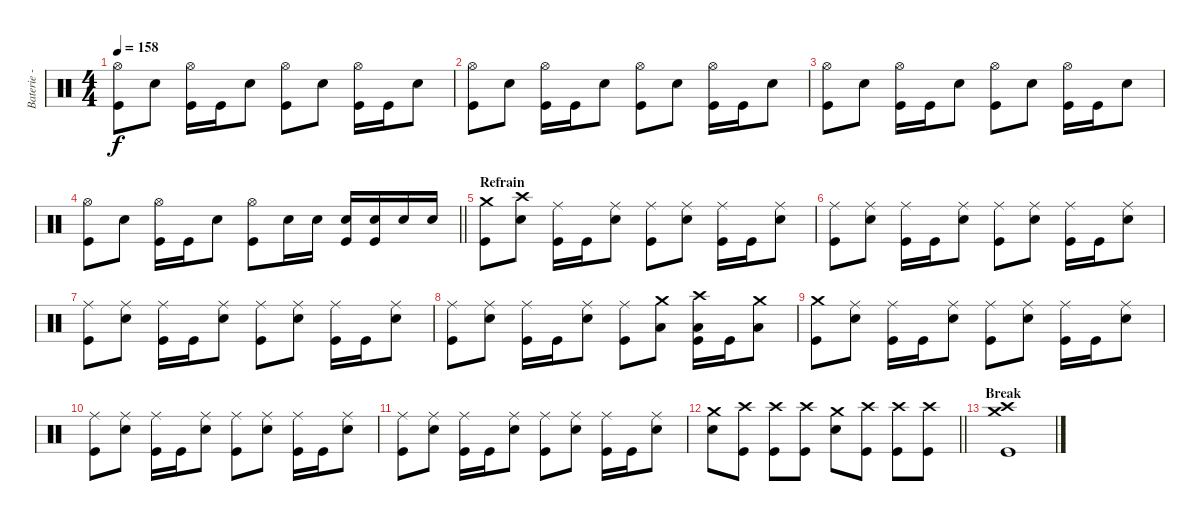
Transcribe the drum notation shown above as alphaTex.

\track ("Baterie - Alex" "Baterie - ") {instrument percussion}
\staff {score}
\articulation defaults
\ts (4 4)
\tempo 158
\clef neutral
\ks c
("Hi-Hat (open)" "Kick (hit)").8{dy f} "Electric Snare (hit)".8 ("Hi-Hat (open)" "Kick (hit)").16 "Kick (hit)".16 "Electric Snare (hit)".8 ("Hi-Hat (open)" "Kick (hit)").8 "Electric Snare (hit)".8 ("Hi-Hat (open)" "Kick (hit)").16 "Kick (hit)".16 "Electric Snare (hit)".8 |
("Hi-Hat (open)" "Kick (hit)").8 "Electric Snare (hit)".8 ("Hi-Hat (open)" "Kick (hit)").16 "Kick (hit)".16 "Electric Snare (hit)".8 ("Hi-Hat (open)" "Kick (hit)").8 "Electric Snare (hit)".8 ("Hi-Hat (open)" "Kick (hit)").16 "Kick (hit)".16 "Electric Snare (hit)".8 |
("Hi-Hat (open)" "Kick (hit)").8 "Electric Snare (hit)".8 ("Hi-Hat (open)" "Kick (hit)").16 "Kick (hit)".16 "Electric Snare (hit)".8 ("Hi-Hat (open)" "Kick (hit)").8 "Electric Snare (hit)".8 ("Hi-Hat (open)" "Kick (hit)").16 "Kick (hit)".16 "Electric Snare (hit)".8 |
\barLineRight lightlight
("Hi-Hat (open)" "Kick (hit)").8 "Electric Snare (hit)".8 ("Hi-Hat (open)" "Kick (hit)").16 "Kick (hit)".16 "Electric Snare (hit)".8 ("Hi-Hat (open)" "Kick (hit)").8 "Electric Snare (hit)".16 "Electric Snare (hit)".16 ("Electric Snare (hit)" "Kick (hit)").16 ("Electric Snare (hit)" "Kick (hit)").16 "Electric Snare (hit)".16 "Electric Snare (hit)".16 |
\section ("" "Refrain")
("Crash medium (hit)" "Kick (hit)").8 ("Crash high (hit)" "Electric Snare (hit)").8 ("Ride (middle)" "Kick (hit)").16 "Kick (hit)".16 ("Ride (middle)" "Electric Snare (hit)").8 ("Ride (middle)" "Kick (hit)").8 ("Ride (middle)" "Electric Snare (hit)").8 ("Ride (middle)" "Kick (hit)").16 "Kick (hit)".16 ("Ride (middle)" "Electric Snare (hit)").8 |
("Ride (middle)" "Kick (hit)").8 ("Ride (middle)" "Electric Snare (hit)").8 ("Ride (middle)" "Kick (hit)").16 "Kick (hit)".16 ("Ride (middle)" "Electric Snare (hit)").8 ("Ride (middle)" "Kick (hit)").8 ("Ride (middle)" "Electric Snare (hit)").8 ("Ride (middle)" "Kick (hit)").16 "Kick (hit)".16 ("Ride (middle)" "Electric Snare (hit)").8 |
("Ride (middle)" "Kick (hit)").8 ("Ride (middle)" "Electric Snare (hit)").8 ("Ride (middle)" "Kick (hit)").16 "Kick (hit)".16 ("Ride (middle)" "Electric Snare (hit)").8 ("Ride (middle)" "Kick (hit)").8 ("Ride (middle)" "Electric Snare (hit)").8 ("Ride (middle)" "Kick (hit)").16 "Kick (hit)".16 ("Ride (middle)" "Electric Snare (hit)").8 |
("Ride (middle)" "Kick (hit)").8 ("Ride (middle)" "Electric Snare (hit)").8 ("Ride (middle)" "Kick (hit)").16 "Kick (hit)".16 ("Ride (middle)" "Electric Snare (hit)").8 ("Ride (middle)" "Kick (hit)").8 ("Crash medium (hit)" "Low Floor Tom (hit)").8 ("Crash high (hit)" "Low Floor Tom (hit)" "Kick (hit)").16 "Kick (hit)".16 ("Crash medium (hit)" "Low Floor Tom (hit)").8 |
("Crash medium (hit)" "Kick (hit)").8 ("Ride (middle)" "Electric Snare (hit)").8 ("Ride (middle)" "Kick (hit)").16 "Kick (hit)".16 ("Ride (middle)" "Electric Snare (hit)").8 ("Ride (middle)" "Kick (hit)").8 ("Ride (middle)" "Electric Snare (hit)").8 ("Ride (middle)" "Kick (hit)").16 "Kick (hit)".16 ("Ride (middle)" "Electric Snare (hit)").8 |
("Ride (middle)" "Kick (hit)").8 ("Ride (middle)" "Electric Snare (hit)").8 ("Ride (middle)" "Kick (hit)").16 "Kick (hit)".16 ("Ride (middle)" "Electric Snare (hit)").8 ("Ride (middle)" "Kick (hit)").8 ("Ride (middle)" "Electric Snare (hit)").8 ("Ride (middle)" "Kick (hit)").16 "Kick (hit)".16 ("Ride (middle)" "Electric Snare (hit)").8 |
("Ride (middle)" "Kick (hit)").8 ("Ride (middle)" "Electric Snare (hit)").8 ("Ride (middle)" "Kick (hit)").16 "Kick (hit)".16 ("Ride (middle)" "Electric Snare (hit)").8 ("Ride (middle)" "Kick (hit)").8 ("Ride (middle)" "Electric Snare (hit)").8 ("Ride (middle)" "Kick (hit)").16 "Kick (hit)".16 ("Ride (middle)" "Electric Snare (hit)").8 |
\barLineRight lightlight
("Crash medium (hit)" "Electric Snare (hit)").8 ("Crash high (hit)" "Kick (hit)").8 ("Crash high (hit)" "Kick (hit)").8 ("Crash high (hit)" "Kick (hit)").8 ("Crash medium (hit)" "Electric Snare (hit)").8 ("Crash high (hit)" "Kick (hit)").8 ("Crash high (hit)" "Kick (hit)").8 ("Crash high (hit)" "Kick (hit)").8 |
\section ("" "Break")
("Crash high (hit)" "Crash medium (hit)" "Kick (hit)").1
